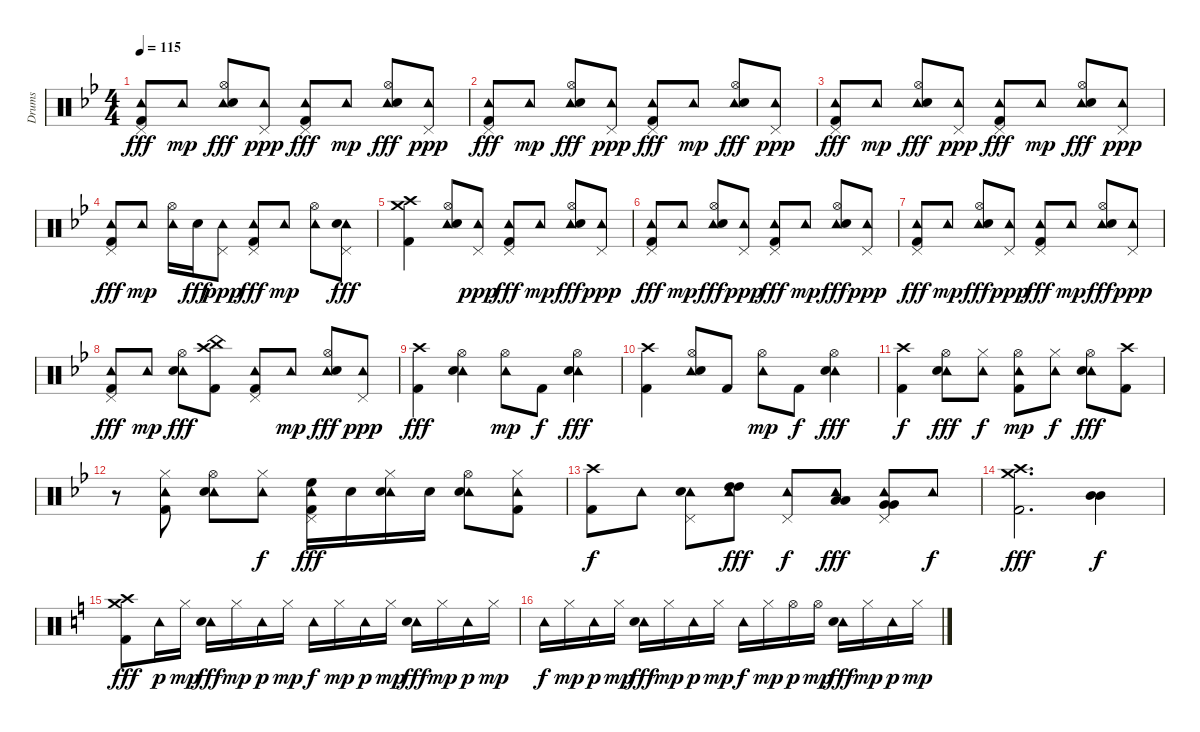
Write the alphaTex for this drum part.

\track ("Drums" "Drums") {instrument percussion}
\staff {score}
\articulation defaults
\ts (4 4)
\tempo 115
\clef neutral
\ks bb
("Tambourine (hit)" "Pedal Hi-Hat (hit)" "Kick (hit) 2").8{dy fff} "Tambourine (hit)".8{dy mp} ("Tambourine (hit)" "Hi-Hat (open)" "Electric Snare (hit)").8{dy fff} ("Tambourine (hit)" "Pedal Hi-Hat (hit)").8{dy ppp} ("Tambourine (hit)" "Pedal Hi-Hat (hit)" "Kick (hit) 2").8{dy fff} "Tambourine (hit)".8{dy mp} ("Tambourine (hit)" "Hi-Hat (open)" "Electric Snare (hit)").8{dy fff} ("Tambourine (hit)" "Pedal Hi-Hat (hit)").8{dy ppp} |
("Tambourine (hit)" "Pedal Hi-Hat (hit)" "Kick (hit) 2").8{dy fff} "Tambourine (hit)".8{dy mp} ("Tambourine (hit)" "Hi-Hat (open)" "Electric Snare (hit)").8{dy fff} ("Tambourine (hit)" "Pedal Hi-Hat (hit)").8{dy ppp} ("Tambourine (hit)" "Pedal Hi-Hat (hit)" "Kick (hit) 2").8{dy fff} "Tambourine (hit)".8{dy mp} ("Tambourine (hit)" "Hi-Hat (open)" "Electric Snare (hit)").8{dy fff} ("Tambourine (hit)" "Pedal Hi-Hat (hit)").8{dy ppp} |
("Tambourine (hit)" "Pedal Hi-Hat (hit)" "Kick (hit) 2").8{dy fff} "Tambourine (hit)".8{dy mp} ("Tambourine (hit)" "Hi-Hat (open)" "Electric Snare (hit)").8{dy fff} ("Tambourine (hit)" "Pedal Hi-Hat (hit)").8{dy ppp} ("Tambourine (hit)" "Pedal Hi-Hat (hit)" "Kick (hit) 2").8{dy fff} "Tambourine (hit)".8{dy mp} ("Tambourine (hit)" "Hi-Hat (open)" "Electric Snare (hit)").8{dy fff} ("Tambourine (hit)" "Pedal Hi-Hat (hit)").8{dy ppp} |
("Tambourine (hit)" "Pedal Hi-Hat (hit)" "Kick (hit) 2").8{dy fff} "Tambourine (hit)".8{dy mp} ("Tambourine (hit)" "Hi-Hat (open)").16 "Electric Snare (hit)".16{dy fff} ("Tambourine (hit)" "Pedal Hi-Hat (hit)").8{dy ppp} ("Tambourine (hit)" "Pedal Hi-Hat (hit)" "Kick (hit) 2").8{dy fff} "Tambourine (hit)".8{dy mp} ("Tambourine (hit)" "Hi-Hat (open)").8 ("Tambourine (hit)" "Pedal Hi-Hat (hit)" "Electric Snare (hit)").8{dy fff} |
("Crash high (hit)" "Crash medium (hit)" "Kick (hit) 2").4 ("Tambourine (hit)" "Hi-Hat (open)" "Electric Snare (hit)").8 ("Tambourine (hit)" "Pedal Hi-Hat (hit)").8{dy ppp} ("Tambourine (hit)" "Pedal Hi-Hat (hit)" "Kick (hit) 2").8{dy fff} "Tambourine (hit)".8{dy mp} ("Tambourine (hit)" "Hi-Hat (open)" "Electric Snare (hit)").8{dy fff} ("Tambourine (hit)" "Pedal Hi-Hat (hit)").8{dy ppp} |
("Tambourine (hit)" "Pedal Hi-Hat (hit)" "Kick (hit) 2").8{dy fff} "Tambourine (hit)".8{dy mp} ("Tambourine (hit)" "Hi-Hat (open)" "Electric Snare (hit)").8{dy fff} ("Tambourine (hit)" "Pedal Hi-Hat (hit)").8{dy ppp} ("Tambourine (hit)" "Pedal Hi-Hat (hit)" "Kick (hit) 2").8{dy fff} "Tambourine (hit)".8{dy mp} ("Tambourine (hit)" "Hi-Hat (open)" "Electric Snare (hit)").8{dy fff} ("Tambourine (hit)" "Pedal Hi-Hat (hit)").8{dy ppp} |
("Tambourine (hit)" "Pedal Hi-Hat (hit)" "Kick (hit) 2").8{dy fff} "Tambourine (hit)".8{dy mp} ("Tambourine (hit)" "Hi-Hat (open)" "Electric Snare (hit)").8{dy fff} ("Tambourine (hit)" "Pedal Hi-Hat (hit)").8{dy ppp} ("Tambourine (hit)" "Pedal Hi-Hat (hit)" "Kick (hit) 2").8{dy fff} "Tambourine (hit)".8{dy mp} ("Tambourine (hit)" "Hi-Hat (open)" "Electric Snare (hit)").8{dy fff} ("Tambourine (hit)" "Pedal Hi-Hat (hit)").8{dy ppp} |
("Tambourine (hit)" "Pedal Hi-Hat (hit)" "Kick (hit) 2").8{dy fff} "Tambourine (hit)".8{dy mp} ("Tambourine (hit)" "Hi-Hat (open)" "Electric Snare (hit)").8{dy fff} ("China (hit)" "Crash high (hit)" "Kick (hit) 2").8 ("Tambourine (hit)" "Pedal Hi-Hat (hit)" "Kick (hit) 2").8 "Tambourine (hit)".8{dy mp} ("Tambourine (hit)" "Hi-Hat (open)" "Electric Snare (hit)").8{dy fff} ("Tambourine (hit)" "Pedal Hi-Hat (hit)").8{dy ppp} |
("Crash high (hit)" "Kick (hit) 2").4{dy fff} ("Hi-Hat (open)" "Tambourine (hit)" "Electric Snare (hit)").4 ("Hi-Hat (open)" "Tambourine (hit)").8{dy mp} "Kick (hit) 2".8{dy f} ("Hi-Hat (open)" "Tambourine (hit)" "Electric Snare (hit)").4{dy fff} |
("Crash high (hit)" "Kick (hit) 2").4 ("Hi-Hat (open)" "Tambourine (hit)" "Electric Snare (hit)").8 "Kick (hit) 2".8 ("Hi-Hat (open)" "Tambourine (hit)").8{dy mp} "Kick (hit) 2".8{dy f} ("Hi-Hat (open)" "Tambourine (hit)" "Electric Snare (hit)").4{dy fff} |
("Crash high (hit)" "Kick (hit) 2").4{dy f} ("Hi-Hat (open)" "Tambourine (hit)" "Electric Snare (hit)").8{dy fff} ("Hi-Hat (closed)" "Tambourine (hit)").8{dy f} ("Hi-Hat (open)" "Tambourine (hit)" "Kick (hit) 2").8{dy mp} ("Hi-Hat (closed)" "Tambourine (hit)").8{dy f} ("Hi-Hat (open)" "Tambourine (hit)" "Electric Snare (hit)").8{dy fff} ("Crash high (hit)" "Kick (hit) 2").8 |
r.8 ("Hi-Hat (closed)" "Tambourine (hit)" "Kick (hit) 2").8 ("Hi-Hat (open)" "Tambourine (hit)" "Electric Snare (hit)").8 ("Hi-Hat (closed)" "Tambourine (hit)").8{dy f} ("Pedal Hi-Hat (hit)" "Tambourine (hit)" "High Floor Tom (hit)" "Kick (hit) 2").16{dy fff} "Electric Snare (hit)".16 ("Hi-Hat (closed)" "Tambourine (hit)" "Electric Snare (hit)").16 "Electric Snare (hit)".16 ("Hi-Hat (open)" "Tambourine (hit)" "Electric Snare (hit)").8 ("Hi-Hat (closed)" "Tambourine (hit)" "Kick (hit) 2").8 |
("Crash high (hit)" "Kick (hit) 2").8{dy f} "Tambourine (hit)".8 ("Pedal Hi-Hat (hit)" "Tambourine (hit)" "Electric Snare (hit)").8 ("Tambourine (hit)" "High Tom (hit)" "High Tom (hit)").8{dy fff} ("Pedal Hi-Hat (hit)" "Tambourine (hit)").8{dy f} ("Tambourine (hit)" "Low Tom (hit)" "Low Tom (hit)").8{dy fff} ("Pedal Hi-Hat (hit)" "Tambourine (hit)" "Very Low Tom (hit)" "Very Low Tom (hit)").8 "Tambourine (hit)".8{dy f} |
("Crash high (hit)" "Crash medium (hit)" "Kick (hit) 2").2{d dy fff} ("Mid Tom (hit)" "Mid Tom (hit)").4{dy f} |
\ks c
("Crash medium (hit)" "Crash high (hit)" "Kick (hit) 2").8{dy fff} "Tambourine (hit)".16{dy p} "Hi-Hat (closed)".16{dy mp} ("Tambourine (hit)" "Electric Snare (hit)").16{dy fff} "Hi-Hat (closed)".16{dy mp} "Tambourine (hit)".16{dy p} "Hi-Hat (closed)".16{dy mp} "Tambourine (hit)".16{dy f} "Hi-Hat (closed)".16{dy mp} "Tambourine (hit)".16{dy p} "Hi-Hat (closed)".16{dy mp} ("Tambourine (hit)" "Electric Snare (hit)").16{dy fff} "Hi-Hat (closed)".16{dy mp} "Tambourine (hit)".16{dy p} "Hi-Hat (closed)".16{dy mp} |
"Tambourine (hit)".16{dy f} "Hi-Hat (closed)".16{dy mp} "Tambourine (hit)".16{dy p} "Hi-Hat (closed)".16{dy mp} ("Tambourine (hit)" "Electric Snare (hit)").16{dy fff} "Hi-Hat (closed)".16{dy mp} "Tambourine (hit)".16{dy p} "Hi-Hat (closed)".16{dy mp} "Tambourine (hit)".16{dy f} "Hi-Hat (closed)".16{dy mp} "Hi-Hat (open)".16{dy p} "Hi-Hat (open)".16{dy mp} ("Tambourine (hit)" "Electric Snare (hit)").16{dy fff} "Hi-Hat (closed)".16{dy mp} "Tambourine (hit)".16{dy p} "Hi-Hat (closed)".16{dy mp}
